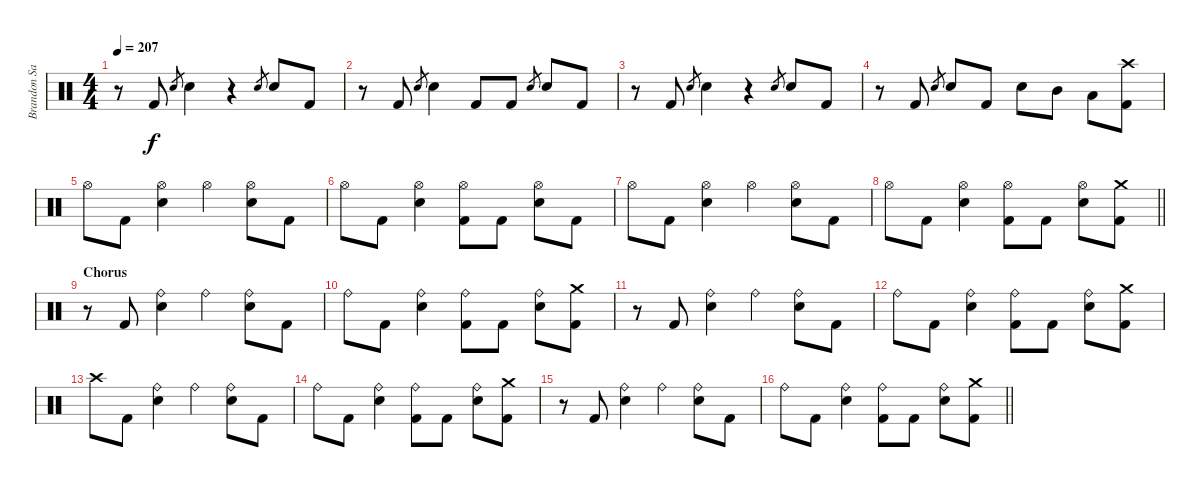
\track ("Brandon Saller" "Brandon Sa") {instrument percussion}
\staff {score}
\articulation defaults
\ts (4 4)
\tempo 207
\clef neutral
\ks c
r.8{dy f} "Kick (hit) 2".8 "Electric Snare (hit)".8{gr} "Electric Snare (hit)".4 r.4 "Electric Snare (hit)".8{gr} "Electric Snare (hit)".8 "Kick (hit) 2".8 |
r.8 "Kick (hit) 2".8 "Electric Snare (hit)".8{gr} "Electric Snare (hit)".4 "Kick (hit) 2".8 "Kick (hit) 2".8 "Electric Snare (hit)".8{gr} "Electric Snare (hit)".8 "Kick (hit) 2".8 |
r.8 "Kick (hit) 2".8 "Electric Snare (hit)".8{gr} "Electric Snare (hit)".4 r.4 "Electric Snare (hit)".8{gr} "Electric Snare (hit)".8 "Kick (hit) 2".8 |
r.8 "Kick (hit) 2".8 "Electric Snare (hit)".8{gr} "Electric Snare (hit)".8 "Kick (hit) 2".8 "Snare (hit) 2".8 "Mid Tom (hit)".8 "Low Tom (hit)".8 ("Crash high (hit)" "Kick (hit) 2").8 |
"Hi-Hat (open)".8 "Kick (hit) 2".8 ("Hi-Hat (open)" "Electric Snare (hit)").4 "Hi-Hat (open)".4 ("Hi-Hat (open)" "Electric Snare (hit)").8 "Kick (hit) 2".8 |
"Hi-Hat (open)".8 "Kick (hit) 2".8 ("Hi-Hat (open)" "Electric Snare (hit)").4 ("Hi-Hat (open)" "Kick (hit) 2").8 "Kick (hit) 2".8 ("Hi-Hat (open)" "Electric Snare (hit)").8 "Kick (hit) 2".8 |
"Hi-Hat (open)".8 "Kick (hit) 2".8 ("Hi-Hat (open)" "Electric Snare (hit)").4 "Hi-Hat (open)".4 ("Hi-Hat (open)" "Electric Snare (hit)").8 "Kick (hit) 2".8 |
\barLineRight lightlight "Hi-Hat (open)".8 "Kick (hit) 2".8
("Hi-Hat (open)" "Electric Snare (hit)").4 ("Hi-Hat (open)" "Kick (hit) 2").8 "Kick (hit) 2".8 ("Hi-Hat (open)" "Electric Snare (hit)").8 ("Crash medium (hit)" "Kick (hit) 2").8 |
\section ("" "Chorus")
r.8 "Kick (hit) 2".8 ("Ride (bell)" "Electric Snare (hit)").4 "Ride (bell)".4 ("Ride (bell)" "Electric Snare (hit)").8 "Kick (hit) 2".8 |
"Ride (bell)".8 "Kick (hit) 2".8 ("Ride (bell)" "Electric Snare (hit)").4 ("Ride (bell)" "Kick (hit) 2").8 "Kick (hit) 2".8 ("Ride (bell)" "Electric Snare (hit)").8 ("Crash medium (hit)" "Kick (hit) 2").8 |
r.8 "Kick (hit) 2".8 ("Ride (bell)" "Electric Snare (hit)").4 "Ride (bell)".4 ("Ride (bell)" "Electric Snare (hit)").8 "Kick (hit) 2".8 |
"Ride (bell)".8 "Kick (hit) 2".8 ("Ride (bell)" "Electric Snare (hit)").4 ("Ride (bell)" "Kick (hit) 2").8 "Kick (hit) 2".8 ("Ride (bell)" "Electric Snare (hit)").8 ("Crash medium (hit)" "Kick (hit) 2").8 |
"Crash high (hit)".8 "Kick (hit) 2".8 ("Ride (bell)" "Electric Snare (hit)").4 "Ride (bell)".4 ("Ride (bell)" "Electric Snare (hit)").8 "Kick (hit) 2".8 |
"Ride (bell)".8 "Kick (hit) 2".8 ("Ride (bell)" "Electric Snare (hit)").4 ("Ride (bell)" "Kick (hit) 2").8 "Kick (hit) 2".8 ("Ride (bell)" "Electric Snare (hit)").8 ("Crash medium (hit)" "Kick (hit) 2").8 |
r.8 "Kick (hit) 2".8 ("Ride (bell)" "Electric Snare (hit)").4 "Ride (bell)".4 ("Ride (bell)" "Electric Snare (hit)").8 "Kick (hit) 2".8 |
\barLineRight lightlight "Ride (bell)".8 "Kick (hit) 2".8
("Ride (bell)" "Electric Snare (hit)").4 ("Ride (bell)" "Kick (hit) 2").8 "Kick (hit) 2".8 ("Ride (bell)" "Electric Snare (hit)").8 ("Crash medium (hit)" "Kick (hit) 2").8
